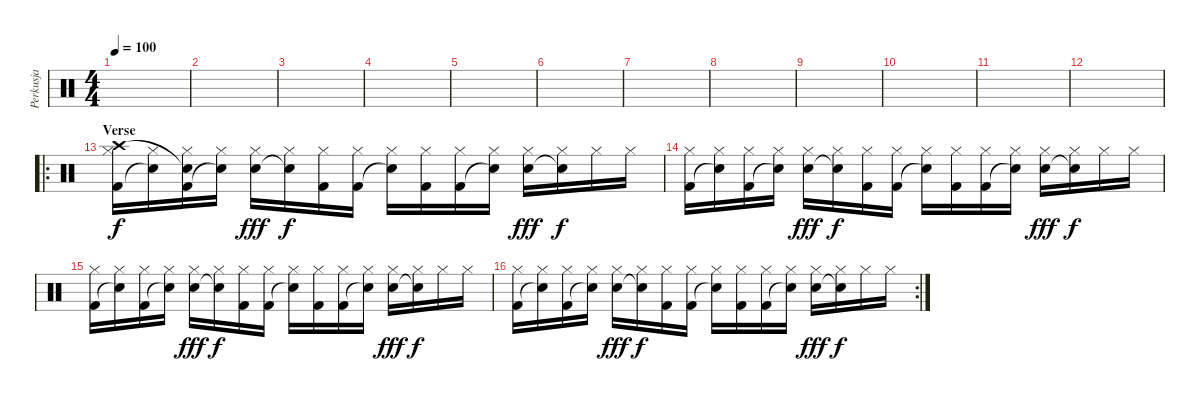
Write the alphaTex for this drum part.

\track ("Perkusja" "Perkusja") {instrument percussion}
\staff {score}
\articulation defaults
\ts (4 4)
\tempo 100
\clef neutral
\ks c
|
|
|
|
|
|
|
|
|
|
|
|
\ro
\section ("" "Verse")
("Kick (hit) 2" "Hi-Hat (closed)" "Crash high (hit)").16 ("Snare (hit)"{t} "Hi-Hat (closed)").16 ("Kick (hit) 2" "Hi-Hat (closed)" "Snare (hit)"{t}).16 ("Snare (hit)"{t} "Hi-Hat (closed)").16 ("Snare (hit) 2" "Hi-Hat (closed)").16{dy fff} ("Snare (hit)"{t} "Hi-Hat (closed)").16{dy f} ("Kick (hit) 2" "Hi-Hat (closed)").16 ("Kick (hit) 2" "Hi-Hat (closed)").16 ("Snare (hit)"{t} "Hi-Hat (closed)").16 ("Kick (hit) 2" "Hi-Hat (closed)").16 ("Kick (hit) 2" "Hi-Hat (closed)").16 ("Snare (hit)"{t} "Hi-Hat (closed)").16 ("Snare (hit) 2" "Hi-Hat (closed)").16{dy fff} ("Snare (hit)"{t} "Hi-Hat (closed)").16{dy f} "Hi-Hat (closed)".16 "Hi-Hat (closed)".16 |
("Kick (hit) 2" "Hi-Hat (closed)").16 ("Snare (hit)"{t} "Hi-Hat (closed)").16 ("Kick (hit) 2" "Hi-Hat (closed)").16 ("Snare (hit)"{t} "Hi-Hat (closed)").16 ("Snare (hit) 2" "Hi-Hat (closed)").16{dy fff} ("Snare (hit)"{t} "Hi-Hat (closed)").16{dy f} ("Kick (hit) 2" "Hi-Hat (closed)").16 ("Kick (hit) 2" "Hi-Hat (closed)").16 ("Snare (hit)"{t} "Hi-Hat (closed)").16 ("Kick (hit) 2" "Hi-Hat (closed)").16 ("Kick (hit) 2" "Hi-Hat (closed)").16 ("Snare (hit)"{t} "Hi-Hat (closed)").16 ("Snare (hit) 2" "Hi-Hat (closed)").16{dy fff} ("Snare (hit)"{t} "Hi-Hat (closed)").16{dy f} "Hi-Hat (closed)".16 "Hi-Hat (closed)".16 |
("Kick (hit) 2" "Hi-Hat (closed)").16 ("Snare (hit)"{t} "Hi-Hat (closed)").16 ("Kick (hit) 2" "Hi-Hat (closed)").16 ("Snare (hit)"{t} "Hi-Hat (closed)").16 ("Snare (hit) 2" "Hi-Hat (closed)").16{dy fff} ("Snare (hit)"{t} "Hi-Hat (closed)").16{dy f} ("Kick (hit) 2" "Hi-Hat (closed)").16 ("Kick (hit) 2" "Hi-Hat (closed)").16 ("Snare (hit)"{t} "Hi-Hat (closed)").16 ("Kick (hit) 2" "Hi-Hat (closed)").16 ("Kick (hit) 2" "Hi-Hat (closed)").16 ("Snare (hit)"{t} "Hi-Hat (closed)").16 ("Snare (hit) 2" "Hi-Hat (closed)").16{dy fff} ("Snare (hit)"{t} "Hi-Hat (closed)").16{dy f} "Hi-Hat (closed)".16 "Hi-Hat (closed)".16 |
\rc 2
("Kick (hit) 2" "Hi-Hat (closed)").16 ("Snare (hit)"{t} "Hi-Hat (closed)").16 ("Kick (hit) 2" "Hi-Hat (closed)").16 ("Snare (hit)"{t} "Hi-Hat (closed)").16 ("Snare (hit) 2" "Hi-Hat (closed)").16{dy fff} ("Snare (hit)"{t} "Hi-Hat (closed)").16{dy f} ("Kick (hit) 2" "Hi-Hat (closed)").16 ("Kick (hit) 2" "Hi-Hat (closed)").16 ("Snare (hit)"{t} "Hi-Hat (closed)").16 ("Kick (hit) 2" "Hi-Hat (closed)").16 ("Kick (hit) 2" "Hi-Hat (closed)").16 ("Snare (hit)"{t} "Hi-Hat (closed)").16 ("Snare (hit) 2" "Hi-Hat (closed)").16{dy fff} ("Snare (hit)"{t} "Hi-Hat (closed)").16{dy f} "Hi-Hat (closed)".16 "Hi-Hat (closed)".16
